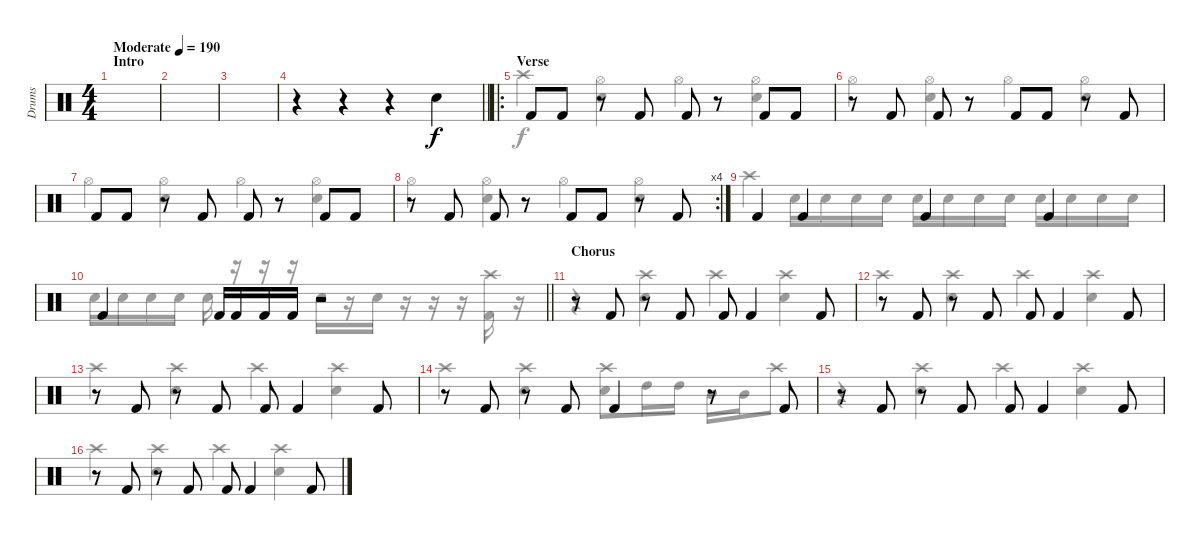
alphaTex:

\track ("Drums" "Drums") {instrument percussion}
\staff {score}
\articulation defaults
\voice
\ts (4 4)
\section ("" "Intro")
\tempo (190 "Moderate")
\clef neutral
\ks c
|
|
|
\barLineRight lightlight
r.4 r.4 r.4 "Electric Snare (hit)".4 |
\ro
\section ("" "Verse")
"Kick (hit) 2".8 "Kick (hit) 2".8 r.8 "Kick (hit) 2".8 "Kick (hit) 2".8 r.8 "Kick (hit) 2".8 "Kick (hit) 2".8 |
r.8 "Kick (hit) 2".8 "Kick (hit) 2".8 r.8 "Kick (hit) 2".8 "Kick (hit) 2".8 r.8 "Kick (hit) 2".8 |
"Kick (hit) 2".8 "Kick (hit) 2".8 r.8 "Kick (hit) 2".8 "Kick (hit) 2".8 r.8 "Kick (hit) 2".8 "Kick (hit) 2".8 |
\rc 4
r.8 "Kick (hit) 2".8 "Kick (hit) 2".8 r.8 "Kick (hit) 2".8 "Kick (hit) 2".8 r.8 "Kick (hit) 2".8 |
"Kick (hit) 2".4 "Kick (hit) 2".4 "Kick (hit) 2".4 "Kick (hit) 2".4 |
\barLineRight lightlight "Kick (hit) 2".4 "Kick (hit) 2".16 "Kick (hit) 2".16 "Kick (hit) 2".16 "Kick (hit) 2".16
r.2 |
\section ("" "Chorus")
r.8 "Kick (hit) 2".8 r.8 "Kick (hit) 2".8 "Kick (hit) 2".8 "Kick (hit) 2".4 "Kick (hit) 2".8 |
r.8 "Kick (hit) 2".8 r.8 "Kick (hit) 2".8 "Kick (hit) 2".8 "Kick (hit) 2".4 "Kick (hit) 2".8 |
r.8 "Kick (hit) 2".8 r.8 "Kick (hit) 2".8 "Kick (hit) 2".8 "Kick (hit) 2".4 "Kick (hit) 2".8 |
r.8 "Kick (hit) 2".8 r.8 "Kick (hit) 2".8 "Kick (hit) 2".4 r.8 "Kick (hit) 2".8 |
r.8 "Kick (hit) 2".8 r.8 "Kick (hit) 2".8 "Kick (hit) 2".8 "Kick (hit) 2".4 "Kick (hit) 2".8 |
r.8 "Kick (hit) 2".8 r.8 "Kick (hit) 2".8 "Kick (hit) 2".8 "Kick (hit) 2".4 "Kick (hit) 2".8
\voice
\clef neutral
\ottava regular
\simile none
\ks c
|
|
|
\barLineRight lightlight
|
"Crash high (hit)".4 ("Electric Snare (hit)" "Hi-Hat (open)").4 "Hi-Hat (open)".4 ("Electric Snare (hit)" "Hi-Hat (open)").4 |
"Hi-Hat (open)".4 ("Electric Snare (hit)" "Hi-Hat (open)").4 "Hi-Hat (open)".4 ("Electric Snare (hit)" "Hi-Hat (open)").4 |
"Hi-Hat (open)".4 ("Electric Snare (hit)" "Hi-Hat (open)").4 "Hi-Hat (open)".4 ("Electric Snare (hit)" "Hi-Hat (open)").4 |
"Hi-Hat (open)".4 ("Electric Snare (hit)" "Hi-Hat (open)").4 "Hi-Hat (open)".4 ("Electric Snare (hit)" "Hi-Hat (open)").4 |
"Crash high (hit)".4 "Electric Snare (hit)".16 "Electric Snare (hit)".16 "Electric Snare (hit)".16 "Electric Snare (hit)".16 "Electric Snare (hit)".16 "Electric Snare (hit)".16 "Electric Snare (hit)".16 "Electric Snare (hit)".16 "Electric Snare (hit)".16 "Electric Snare (hit)".16 "Electric Snare (hit)".16 "Electric Snare (hit)".16 |
\barLineRight lightlight "Electric Snare (hit)".16 "Electric Snare (hit)".16 "Electric Snare (hit)".16 "Electric Snare (hit)".16 "Electric Snare (hit)".16
r.16 r.16 r.16 "Electric Snare (hit)".16 r.16 "Electric Snare (hit)".16 r.16 r.16 r.16 ("Kick (hit) 2" "Crash high (hit)").16 r.16 |
r.4 ("Electric Snare (hit)" "Crash high (hit)").4 "Crash high (hit)".4 ("Electric Snare (hit)" "Crash high (hit)").4 |
"Crash high (hit)".4 ("Electric Snare (hit)" "Crash high (hit)").4 "Crash high (hit)".4 ("Electric Snare (hit)" "Crash high (hit)").4 |
"Crash high (hit)".4 ("Electric Snare (hit)" "Crash high (hit)").4 "Crash high (hit)".4 ("Electric Snare (hit)" "Crash high (hit)").4 |
"Crash high (hit)".4 ("Electric Snare (hit)" "Crash high (hit)").4 ("Electric Snare (hit)" "Crash high (hit)").8 "High Tom (hit)".16 "High Tom (hit)".16 "Mid Tom (hit)".16 "Mid Tom (hit)".16 "Crash high (hit)".8 |
r.4 ("Electric Snare (hit)" "Crash high (hit)").4 "Crash high (hit)".4 ("Electric Snare (hit)" "Crash high (hit)").4 |
"Crash high (hit)".4 ("Electric Snare (hit)" "Crash high (hit)").4 "Crash high (hit)".4 ("Electric Snare (hit)" "Crash high (hit)").4
